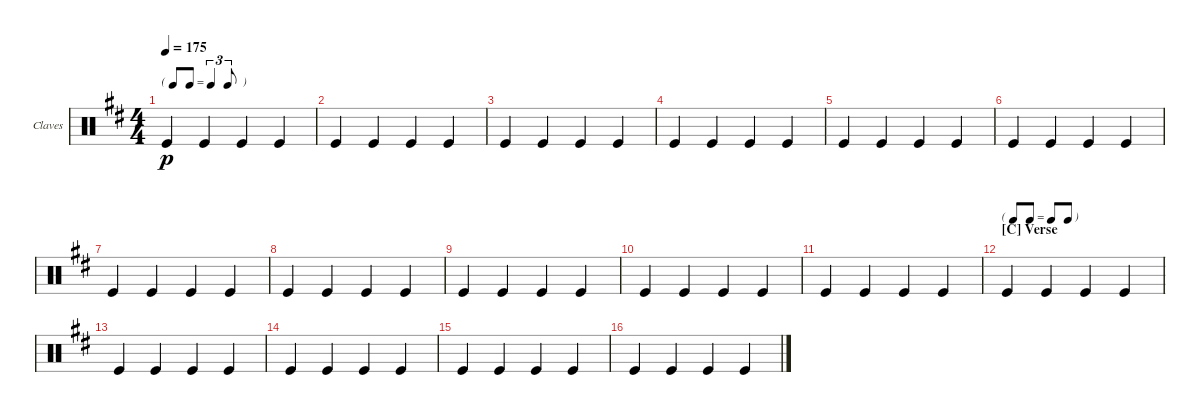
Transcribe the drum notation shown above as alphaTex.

\defaultSystemsLayout 4
\bracketExtendMode groupsimilarinstruments
\firstSystemTrackNameOrientation horizontal
\otherSystemsTrackNameOrientation horizontal
\track ("Claves" "Claves") {instrument percussion}
\staff {score}
\articulation defaults
\ts (4 4)
\tf triplet8th
\tempo 175
\clef neutral
\ks d "Kick (hit)".4{dy p} "Kick (hit)".4 "Kick (hit)".4 "Kick (hit)".4
|
"Kick (hit)".4 "Kick (hit)".4 "Kick (hit)".4 "Kick (hit)".4 |
"Kick (hit)".4 "Kick (hit)".4 "Kick (hit)".4 "Kick (hit)".4 |
"Kick (hit)".4 "Kick (hit)".4 "Kick (hit)".4 "Kick (hit)".4 |
"Kick (hit)".4 "Kick (hit)".4 "Kick (hit)".4 "Kick (hit)".4 |
"Kick (hit)".4 "Kick (hit)".4 "Kick (hit)".4 "Kick (hit)".4 |
"Kick (hit)".4 "Kick (hit)".4 "Kick (hit)".4 "Kick (hit)".4 |
"Kick (hit)".4 "Kick (hit)".4 "Kick (hit)".4 "Kick (hit)".4 |
"Kick (hit)".4 "Kick (hit)".4 "Kick (hit)".4 "Kick (hit)".4 |
"Kick (hit)".4 "Kick (hit)".4 "Kick (hit)".4 "Kick (hit)".4 |
"Kick (hit)".4 "Kick (hit)".4 "Kick (hit)".4 "Kick (hit)".4 |
\tf none
\section ("C" "Verse")
"Kick (hit)".4 "Kick (hit)".4 "Kick (hit)".4 "Kick (hit)".4 |
"Kick (hit)".4 "Kick (hit)".4 "Kick (hit)".4 "Kick (hit)".4 |
"Kick (hit)".4 "Kick (hit)".4 "Kick (hit)".4 "Kick (hit)".4 |
"Kick (hit)".4 "Kick (hit)".4 "Kick (hit)".4 "Kick (hit)".4 |
"Kick (hit)".4 "Kick (hit)".4 "Kick (hit)".4 "Kick (hit)".4
